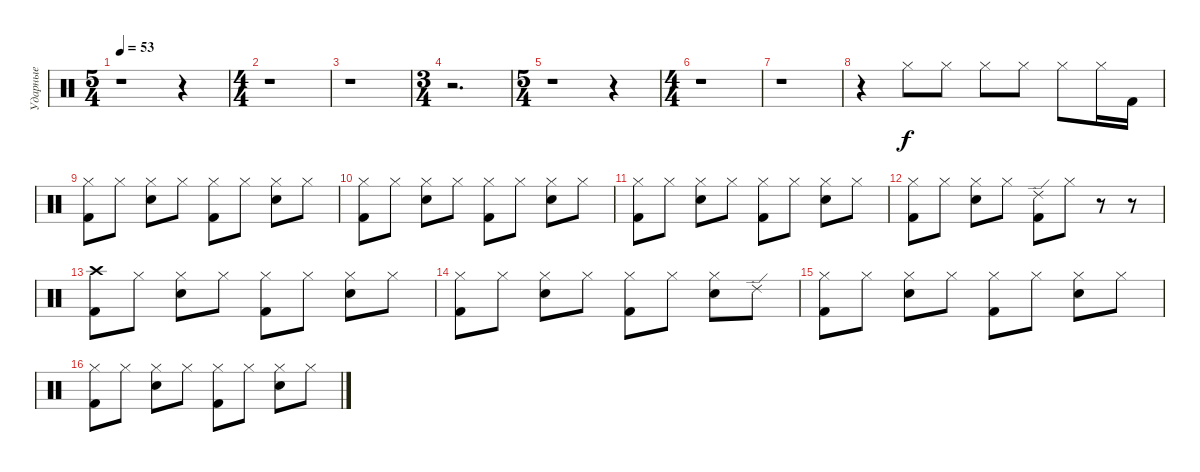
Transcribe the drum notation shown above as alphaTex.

\track ("Ударные" "Ударные") {instrument percussion}
\staff {score}
\articulation defaults
\ts (5 4)
\tempo 53
\clef neutral
\ks c
r.1{dy f} r.4 |
\ts (4 4)
r.1 |
r.1 |
\ts (3 4)
r.2{d} |
\ts (5 4)
r.1 r.4 |
\ts (4 4)
r.1 |
r.1 |
r.4 "Hi-Hat (closed)".8 "Hi-Hat (closed)".8 "Hi-Hat (closed)".8 "Hi-Hat (closed)".8 "Hi-Hat (closed)".8 "Hi-Hat (closed)".16 "Kick (hit) 2".16 |
("Hi-Hat (closed)" "Kick (hit) 2").8 "Hi-Hat (closed)".8 ("Hi-Hat (closed)" "Snare (hit) 2").8 "Hi-Hat (closed)".8 ("Hi-Hat (closed)" "Kick (hit) 2").8 "Hi-Hat (closed)".8 ("Hi-Hat (closed)" "Snare (hit) 2").8 "Hi-Hat (closed)".8 |
("Hi-Hat (closed)" "Kick (hit) 2").8 "Hi-Hat (closed)".8 ("Hi-Hat (closed)" "Snare (hit) 2").8 "Hi-Hat (closed)".8 ("Hi-Hat (closed)" "Kick (hit) 2").8 "Hi-Hat (closed)".8 ("Hi-Hat (closed)" "Snare (hit) 2").8 "Hi-Hat (closed)".8 |
("Hi-Hat (closed)" "Kick (hit) 2").8 "Hi-Hat (closed)".8 ("Hi-Hat (closed)" "Snare (hit) 2").8 "Hi-Hat (closed)".8 ("Hi-Hat (closed)" "Kick (hit) 2").8 "Hi-Hat (closed)".8 ("Hi-Hat (closed)" "Snare (hit) 2").8 "Hi-Hat (closed)".8 |
("Hi-Hat (closed)" "Kick (hit) 2").8 "Hi-Hat (closed)".8 ("Hi-Hat (closed)" "Snare (hit) 2").8 "Hi-Hat (closed)".8 ("Ride (edge) 2" "Kick (hit) 2").8 "Hi-Hat (closed)".8 r.8 r.8 |
("Crash high (hit)" "Kick (hit) 2").8 "Hi-Hat (closed)".8 ("Hi-Hat (closed)" "Snare (hit) 2").8 "Hi-Hat (closed)".8 ("Hi-Hat (closed)" "Kick (hit) 2").8 "Hi-Hat (closed)".8 ("Hi-Hat (closed)" "Snare (hit) 2").8 "Hi-Hat (closed)".8 |
("Hi-Hat (closed)" "Kick (hit) 2").8 "Hi-Hat (closed)".8 ("Hi-Hat (closed)" "Snare (hit) 2").8 "Hi-Hat (closed)".8 ("Hi-Hat (closed)" "Kick (hit) 2").8 "Hi-Hat (closed)".8 ("Hi-Hat (closed)" "Snare (hit) 2").8 "Ride (edge) 2".8 |
("Hi-Hat (closed)" "Kick (hit) 2").8 "Hi-Hat (closed)".8 ("Hi-Hat (closed)" "Snare (hit) 2").8 "Hi-Hat (closed)".8 ("Hi-Hat (closed)" "Kick (hit) 2").8 "Hi-Hat (closed)".8 ("Hi-Hat (closed)" "Snare (hit) 2").8 "Hi-Hat (closed)".8 |
("Hi-Hat (closed)" "Kick (hit) 2").8 "Hi-Hat (closed)".8 ("Hi-Hat (closed)" "Snare (hit) 2").8 "Hi-Hat (closed)".8 ("Hi-Hat (closed)" "Kick (hit) 2").8 "Hi-Hat (closed)".8 ("Hi-Hat (closed)" "Snare (hit) 2").8 "Hi-Hat (closed)".8
